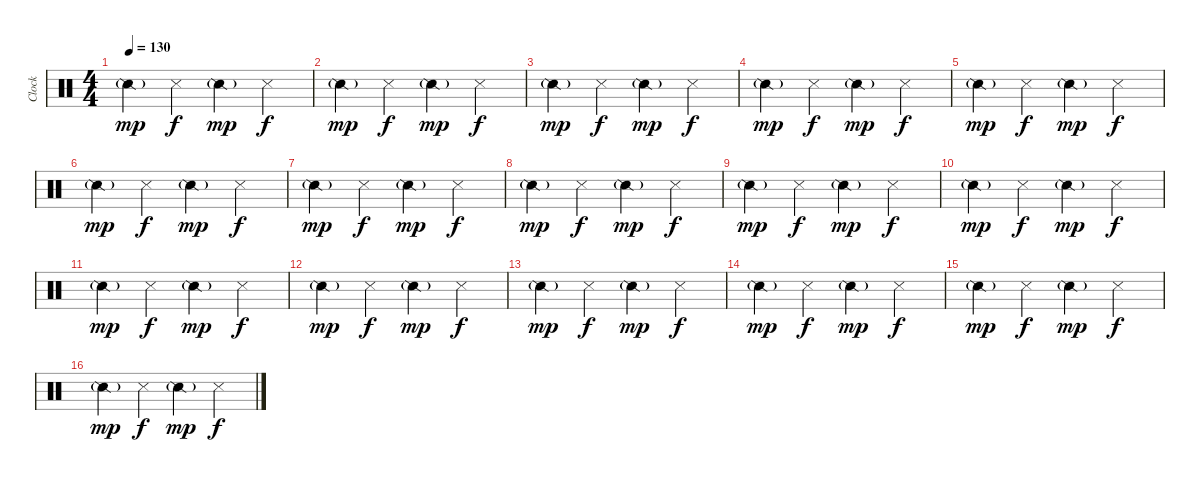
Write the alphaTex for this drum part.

\track ("Clock" "Clock") {instrument percussion}
\staff {score}
\articulation defaults
\ts (4 4)
\tempo 130
\clef neutral
\ks c "Snare (side stick) 2"{g}.4{dy mp} "Metronome (hit)".4{dy f} "Snare (side stick) 2"{g}.4{dy mp} "Metronome (hit)".4{dy f}
|
"Snare (side stick) 2"{g}.4{dy mp} "Metronome (hit)".4{dy f} "Snare (side stick) 2"{g}.4{dy mp} "Metronome (hit)".4{dy f} |
"Snare (side stick) 2"{g}.4{dy mp} "Metronome (hit)".4{dy f} "Snare (side stick) 2"{g}.4{dy mp} "Metronome (hit)".4{dy f} |
"Snare (side stick) 2"{g}.4{dy mp} "Metronome (hit)".4{dy f} "Snare (side stick) 2"{g}.4{dy mp} "Metronome (hit)".4{dy f} |
"Snare (side stick) 2"{g}.4{dy mp} "Metronome (hit)".4{dy f} "Snare (side stick) 2"{g}.4{dy mp} "Metronome (hit)".4{dy f} |
"Snare (side stick) 2"{g}.4{dy mp} "Metronome (hit)".4{dy f} "Snare (side stick) 2"{g}.4{dy mp} "Metronome (hit)".4{dy f} |
"Snare (side stick) 2"{g}.4{dy mp} "Metronome (hit)".4{dy f} "Snare (side stick) 2"{g}.4{dy mp} "Metronome (hit)".4{dy f} |
"Snare (side stick) 2"{g}.4{dy mp} "Metronome (hit)".4{dy f} "Snare (side stick) 2"{g}.4{dy mp} "Metronome (hit)".4{dy f} |
"Snare (side stick) 2"{g}.4{dy mp} "Metronome (hit)".4{dy f} "Snare (side stick) 2"{g}.4{dy mp} "Metronome (hit)".4{dy f} |
"Snare (side stick) 2"{g}.4{dy mp} "Metronome (hit)".4{dy f} "Snare (side stick) 2"{g}.4{dy mp} "Metronome (hit)".4{dy f} |
"Snare (side stick) 2"{g}.4{dy mp} "Metronome (hit)".4{dy f} "Snare (side stick) 2"{g}.4{dy mp} "Metronome (hit)".4{dy f} |
"Snare (side stick) 2"{g}.4{dy mp} "Metronome (hit)".4{dy f} "Snare (side stick) 2"{g}.4{dy mp} "Metronome (hit)".4{dy f} |
"Snare (side stick) 2"{g}.4{dy mp} "Metronome (hit)".4{dy f} "Snare (side stick) 2"{g}.4{dy mp} "Metronome (hit)".4{dy f} |
"Snare (side stick) 2"{g}.4{dy mp} "Metronome (hit)".4{dy f} "Snare (side stick) 2"{g}.4{dy mp} "Metronome (hit)".4{dy f} |
"Snare (side stick) 2"{g}.4{dy mp} "Metronome (hit)".4{dy f} "Snare (side stick) 2"{g}.4{dy mp} "Metronome (hit)".4{dy f} |
"Snare (side stick) 2"{g}.4{dy mp} "Metronome (hit)".4{dy f} "Snare (side stick) 2"{g}.4{dy mp} "Metronome (hit)".4{dy f}
